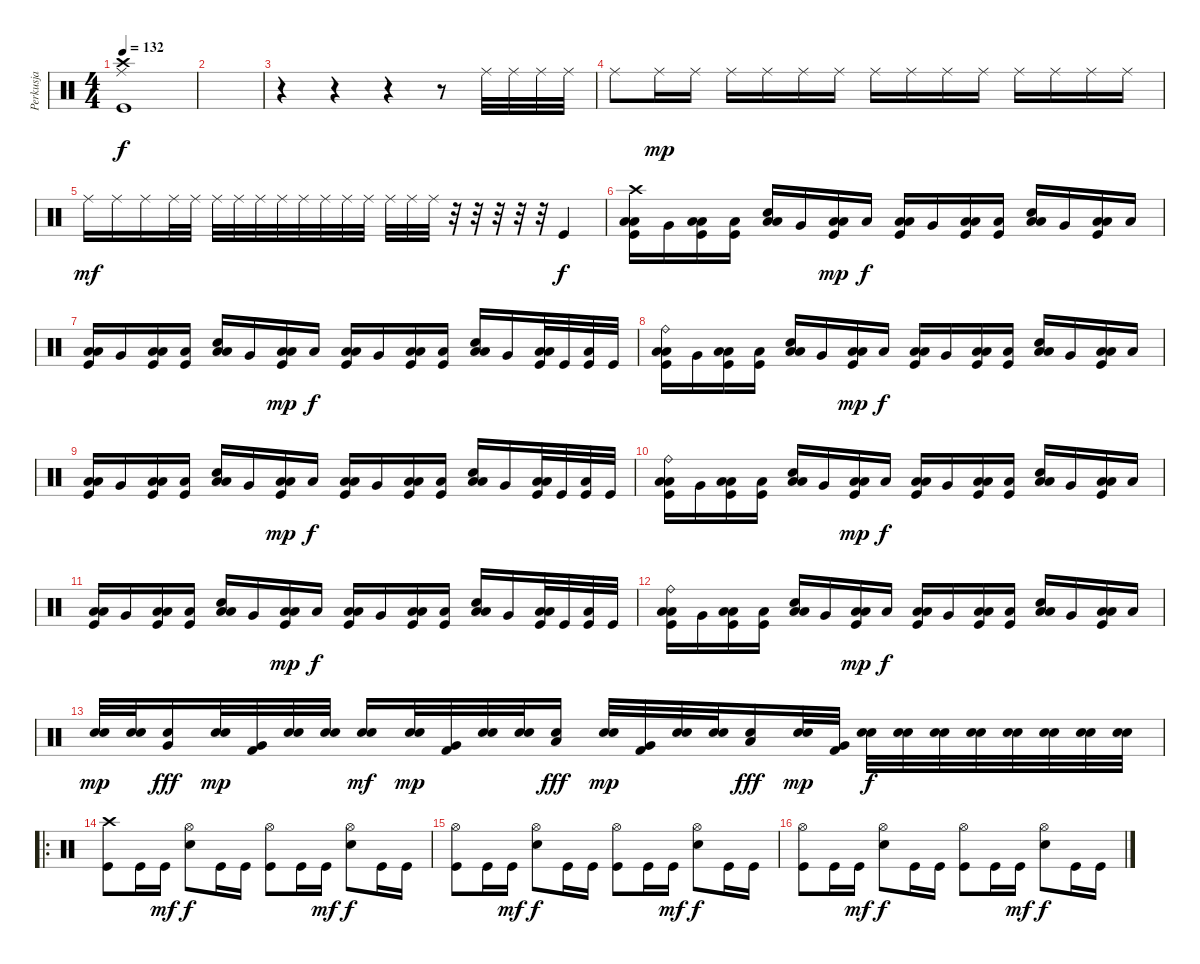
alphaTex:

\track ("Perkusja" "Perkusja") {instrument percussion}
\staff {score}
\articulation defaults
\ts (4 4)
\tempo 132
\clef neutral
\ks c
("Crash high (hit)" "Ride (middle)" "Kick (hit)").1{dy f} |
|
r.4 r.4 r.4 r.8 "Ride (middle)".32 "Ride (middle)".32 "Ride (middle)".32 "Ride (middle)".32 |
"Ride (middle)".8 "Ride (middle)".16{dy mp} "Ride (middle)".16 "Ride (middle)".16 "Ride (middle)".16 "Ride (middle)".16 "Ride (middle)".16 "Ride (middle)".16 "Ride (middle)".16 "Ride (middle)".16 "Ride (middle)".16 "Ride (middle)".16 "Ride (middle)".16 "Ride (middle)".16 "Ride (middle)".16 |
"Ride (middle)".16{dy mf} "Ride (middle)".16 "Ride (middle)".16 "Ride (middle)".32 "Ride (middle)".32 "Ride (middle)".32 "Ride (middle)".32 "Ride (middle)".32 "Ride (middle)".32 "Ride (middle)".32 "Ride (middle)".32 "Ride (middle)".32 "Ride (middle)".32 "Ride (middle)".32 "Ride (middle)".32 "Ride (middle)".32 r.32 r.32 r.32 r.32 r.32 "Kick (hit)".4{dy f} |
("Crash high (hit)" "Low Floor Tom (hit)" "Low Floor Tom (hit)" "Kick (hit)").16 "Very Low Tom (hit)".16 ("Low Floor Tom (hit)" "Low Floor Tom (hit)" "Kick (hit)").16 ("Low Tom (hit)" "Kick (hit)").16 ("Low Floor Tom (hit)" "Low Floor Tom (hit)" "Electric Snare (hit)").16 "Very Low Tom (hit)".16 ("Low Floor Tom (hit)" "Low Floor Tom (hit)" "Kick (hit)").16{dy mp} "Low Tom (hit)".16{dy f} ("Low Floor Tom (hit)" "Low Floor Tom (hit)" "Kick (hit)").16 "Very Low Tom (hit)".16 ("Low Floor Tom (hit)" "Low Floor Tom (hit)" "Kick (hit)").16 ("Low Tom (hit)" "Kick (hit)").16 ("Low Floor Tom (hit)" "Low Floor Tom (hit)" "Electric Snare (hit)").16 "Very Low Tom (hit)".16 ("Low Floor Tom (hit)" "Low Floor Tom (hit)" "Kick (hit)").16 "Low Tom (hit)".16 |
("Low Floor Tom (hit)" "Low Floor Tom (hit)" "Kick (hit)").16 "Very Low Tom (hit)".16 ("Low Floor Tom (hit)" "Low Floor Tom (hit)" "Kick (hit)").16 ("Low Tom (hit)" "Kick (hit)").16 ("Low Floor Tom (hit)" "Low Floor Tom (hit)" "Electric Snare (hit)").16 "Very Low Tom (hit)".16 ("Low Floor Tom (hit)" "Low Floor Tom (hit)" "Kick (hit)").16{dy mp} "Low Tom (hit)".16{dy f} ("Low Floor Tom (hit)" "Low Floor Tom (hit)" "Kick (hit)").16 "Very Low Tom (hit)".16 ("Low Floor Tom (hit)" "Low Floor Tom (hit)" "Kick (hit)").16 ("Low Tom (hit)" "Kick (hit)").16 ("Low Floor Tom (hit)" "Low Floor Tom (hit)" "Electric Snare (hit)").16 "Very Low Tom (hit)".16 ("Low Floor Tom (hit)" "Low Floor Tom (hit)" "Kick (hit)").32 "Kick (hit)".32 ("Low Tom (hit)" "Kick (hit)").32 "Kick (hit)".32 |
("Ride (bell)" "Low Floor Tom (hit)" "Low Floor Tom (hit)" "Kick (hit)").16 "Very Low Tom (hit)".16 ("Low Floor Tom (hit)" "Low Floor Tom (hit)" "Kick (hit)").16 ("Low Tom (hit)" "Kick (hit)").16 ("Low Floor Tom (hit)" "Low Floor Tom (hit)" "Electric Snare (hit)").16 "Very Low Tom (hit)".16 ("Low Floor Tom (hit)" "Low Floor Tom (hit)" "Kick (hit)").16{dy mp} "Low Tom (hit)".16{dy f} ("Low Floor Tom (hit)" "Low Floor Tom (hit)" "Kick (hit)").16 "Very Low Tom (hit)".16 ("Low Floor Tom (hit)" "Low Floor Tom (hit)" "Kick (hit)").16 ("Low Tom (hit)" "Kick (hit)").16 ("Low Floor Tom (hit)" "Low Floor Tom (hit)" "Electric Snare (hit)").16 "Very Low Tom (hit)".16 ("Low Floor Tom (hit)" "Low Floor Tom (hit)" "Kick (hit)").16 "Low Tom (hit)".16 |
("Low Floor Tom (hit)" "Low Floor Tom (hit)" "Kick (hit)").16 "Very Low Tom (hit)".16 ("Low Floor Tom (hit)" "Low Floor Tom (hit)" "Kick (hit)").16 ("Low Tom (hit)" "Kick (hit)").16 ("Low Floor Tom (hit)" "Low Floor Tom (hit)" "Electric Snare (hit)").16 "Very Low Tom (hit)".16 ("Low Floor Tom (hit)" "Low Floor Tom (hit)" "Kick (hit)").16{dy mp} "Low Tom (hit)".16{dy f} ("Low Floor Tom (hit)" "Low Floor Tom (hit)" "Kick (hit)").16 "Very Low Tom (hit)".16 ("Low Floor Tom (hit)" "Low Floor Tom (hit)" "Kick (hit)").16 ("Low Tom (hit)" "Kick (hit)").16 ("Low Floor Tom (hit)" "Low Floor Tom (hit)" "Electric Snare (hit)").16 "Very Low Tom (hit)".16 ("Low Floor Tom (hit)" "Low Floor Tom (hit)" "Kick (hit)").32 "Kick (hit)".32 ("Low Tom (hit)" "Kick (hit)").32 "Kick (hit)".32 |
("Ride (bell)" "Low Floor Tom (hit)" "Low Floor Tom (hit)" "Kick (hit)").16 "Very Low Tom (hit)".16 ("Low Floor Tom (hit)" "Low Floor Tom (hit)" "Kick (hit)").16 ("Low Tom (hit)" "Kick (hit)").16 ("Low Floor Tom (hit)" "Low Floor Tom (hit)" "Electric Snare (hit)").16 "Very Low Tom (hit)".16 ("Low Floor Tom (hit)" "Low Floor Tom (hit)" "Kick (hit)").16{dy mp} "Low Tom (hit)".16{dy f} ("Low Floor Tom (hit)" "Low Floor Tom (hit)" "Kick (hit)").16 "Very Low Tom (hit)".16 ("Low Floor Tom (hit)" "Low Floor Tom (hit)" "Kick (hit)").16 ("Low Tom (hit)" "Kick (hit)").16 ("Low Floor Tom (hit)" "Low Floor Tom (hit)" "Electric Snare (hit)").16 "Very Low Tom (hit)".16 ("Low Floor Tom (hit)" "Low Floor Tom (hit)" "Kick (hit)").16 "Low Tom (hit)".16 |
("Low Floor Tom (hit)" "Low Floor Tom (hit)" "Kick (hit)").16 "Very Low Tom (hit)".16 ("Low Floor Tom (hit)" "Low Floor Tom (hit)" "Kick (hit)").16 ("Low Tom (hit)" "Kick (hit)").16 ("Low Floor Tom (hit)" "Low Floor Tom (hit)" "Electric Snare (hit)").16 "Very Low Tom (hit)".16 ("Low Floor Tom (hit)" "Low Floor Tom (hit)" "Kick (hit)").16{dy mp} "Low Tom (hit)".16{dy f} ("Low Floor Tom (hit)" "Low Floor Tom (hit)" "Kick (hit)").16 "Very Low Tom (hit)".16 ("Low Floor Tom (hit)" "Low Floor Tom (hit)" "Kick (hit)").16 ("Low Tom (hit)" "Kick (hit)").16 ("Low Floor Tom (hit)" "Low Floor Tom (hit)" "Electric Snare (hit)").16 "Very Low Tom (hit)".16 ("Low Floor Tom (hit)" "Low Floor Tom (hit)" "Kick (hit)").32 "Kick (hit)".32 ("Low Tom (hit)" "Kick (hit)").32 "Kick (hit)".32 |
("Ride (bell)" "Low Floor Tom (hit)" "Low Floor Tom (hit)" "Kick (hit)").16 "Very Low Tom (hit)".16 ("Low Floor Tom (hit)" "Low Floor Tom (hit)" "Kick (hit)").16 ("Low Tom (hit)" "Kick (hit)").16 ("Low Floor Tom (hit)" "Low Floor Tom (hit)" "Electric Snare (hit)").16 "Very Low Tom (hit)".16 ("Low Floor Tom (hit)" "Low Floor Tom (hit)" "Kick (hit)").16{dy mp} "Low Tom (hit)".16{dy f} ("Low Floor Tom (hit)" "Low Floor Tom (hit)" "Kick (hit)").16 "Very Low Tom (hit)".16 ("Low Floor Tom (hit)" "Low Floor Tom (hit)" "Kick (hit)").16 ("Low Tom (hit)" "Kick (hit)").16 ("Low Floor Tom (hit)" "Low Floor Tom (hit)" "Electric Snare (hit)").16 "Very Low Tom (hit)".16 ("Low Floor Tom (hit)" "Low Floor Tom (hit)" "Kick (hit)").16 "Low Tom (hit)".16 |
("Electric Snare (hit)" "Electric Snare (hit)").32{dy mp} ("Electric Snare (hit)" "Electric Snare (hit)").32 ("Very Low Tom (hit)" "Electric Snare (hit)").16{dy fff} ("Electric Snare (hit)" "Electric Snare (hit)").32{dy mp} ("Very Low Tom (hit)" "Kick (hit) 2").32 ("Electric Snare (hit)" "Electric Snare (hit)").32 ("Electric Snare (hit)" "Electric Snare (hit)").32 ("Electric Snare (hit)" "Electric Snare (hit)").16{dy mf} ("Electric Snare (hit)" "Electric Snare (hit)").32{dy mp} ("Very Low Tom (hit)" "Kick (hit) 2").32 ("Electric Snare (hit)" "Electric Snare (hit)").32 ("Electric Snare (hit)" "Electric Snare (hit)").32 ("Low Tom (hit)" "Electric Snare (hit)").16{dy fff} ("Electric Snare (hit)" "Electric Snare (hit)").32{dy mp} ("Very Low Tom (hit)" "Kick (hit) 2").32 ("Electric Snare (hit)" "Electric Snare (hit)").32 ("Electric Snare (hit)" "Electric Snare (hit)").32 ("Low Tom (hit)" "Electric Snare (hit)").16{dy fff} ("Electric Snare (hit)" "Electric Snare (hit)").32{dy mp} ("Very Low Tom (hit)" "Kick (hit) 2").32 ("Electric Snare (hit)" "Electric Snare (hit)").32{dy f} ("Electric Snare (hit)" "Electric Snare (hit)").32 ("Electric Snare (hit)" "Electric Snare (hit)").32 ("Electric Snare (hit)" "Electric Snare (hit)").32 ("Electric Snare (hit)" "Electric Snare (hit)").32 ("Electric Snare (hit)" "Electric Snare (hit)").32 ("Electric Snare (hit)" "Electric Snare (hit)").32 ("Electric Snare (hit)" "Electric Snare (hit)").32 |
\ro
("Crash high (hit)" "Kick (hit)").8 "Kick (hit)".16 "Kick (hit)".16{dy mf} ("Hi-Hat (open)" "Electric Snare (hit)").8{dy f} "Kick (hit)".16 "Kick (hit)".16 ("Hi-Hat (open)" "Kick (hit)").8 "Kick (hit)".16 "Kick (hit)".16{dy mf} ("Hi-Hat (open)" "Electric Snare (hit)").8{dy f} "Kick (hit)".16 "Kick (hit)".16 |
("Hi-Hat (open)" "Kick (hit)").8 "Kick (hit)".16 "Kick (hit)".16{dy mf} ("Hi-Hat (open)" "Electric Snare (hit)").8{dy f} "Kick (hit)".16 "Kick (hit)".16 ("Hi-Hat (open)" "Kick (hit)").8 "Kick (hit)".16 "Kick (hit)".16{dy mf} ("Hi-Hat (open)" "Electric Snare (hit)").8{dy f} "Kick (hit)".16 "Kick (hit)".16 |
("Hi-Hat (open)" "Kick (hit)").8 "Kick (hit)".16 "Kick (hit)".16{dy mf} ("Hi-Hat (open)" "Electric Snare (hit)").8{dy f} "Kick (hit)".16 "Kick (hit)".16 ("Hi-Hat (open)" "Kick (hit)").8 "Kick (hit)".16 "Kick (hit)".16{dy mf} ("Hi-Hat (open)" "Electric Snare (hit)").8{dy f} "Kick (hit)".16 "Kick (hit)".16
